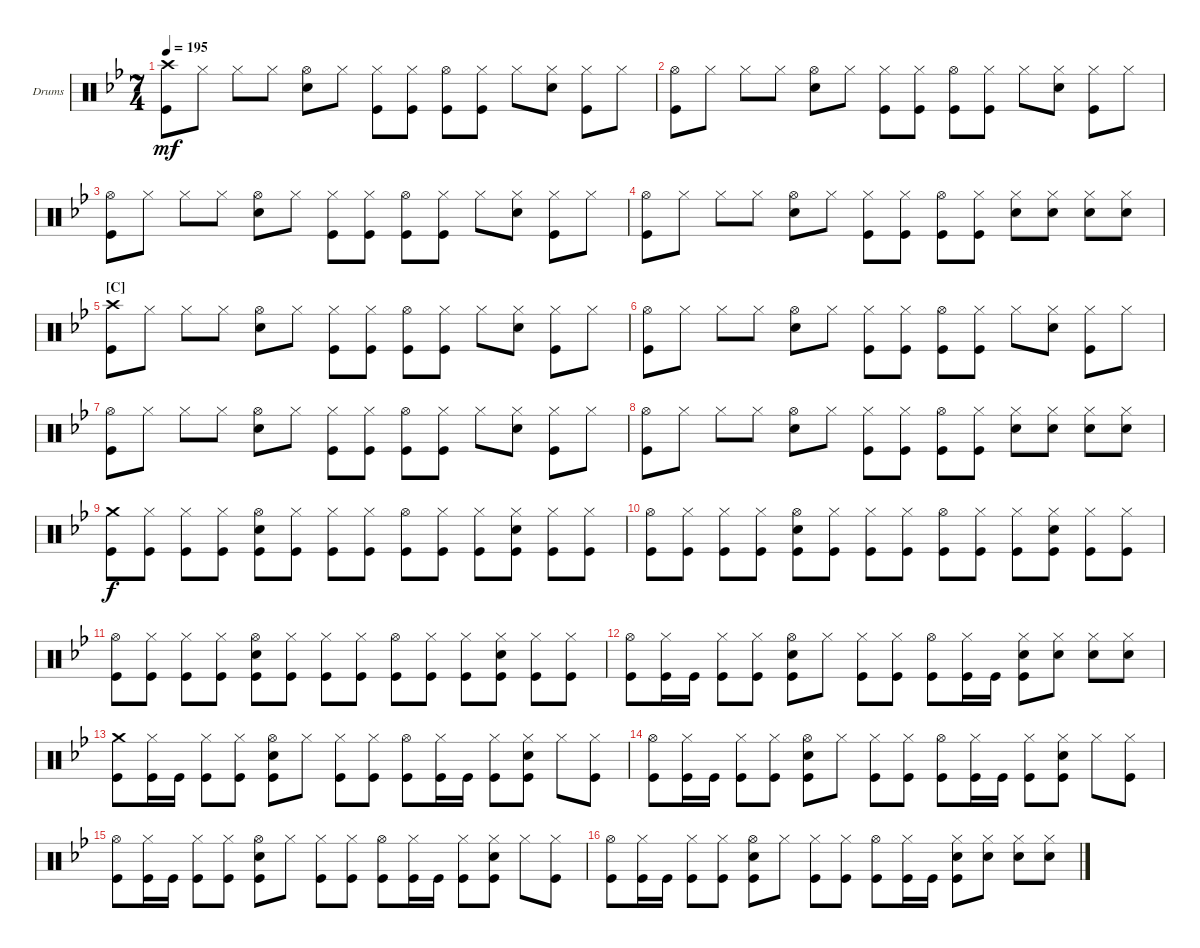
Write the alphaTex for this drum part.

\defaultSystemsLayout 4
\bracketExtendMode groupsimilarinstruments
\firstSystemTrackNameOrientation horizontal
\otherSystemsTrackNameOrientation horizontal
\track ("Drumkit" "Drums") {instrument percussion}
\staff {score}
\articulation defaults
\ts (7 4)
\tempo 195
\clef neutral
\ks gminor
("Crash high (hit)" "Kick (hit)").8{dy mf} "Hi-Hat (closed)".8 "Hi-Hat (closed)".8 "Hi-Hat (closed)".8 ("Hi-Hat (open)" "Snare (hit) 2").8 "Hi-Hat (closed)".8 ("Hi-Hat (closed)" "Kick (hit)").8 ("Hi-Hat (closed)" "Kick (hit)").8 ("Hi-Hat (open)" "Kick (hit)").8 ("Hi-Hat (closed)" "Kick (hit)").8 "Hi-Hat (closed)".8 ("Hi-Hat (closed)" "Snare (hit) 2").8 ("Hi-Hat (closed)" "Kick (hit)").8 "Hi-Hat (closed)".8 |
("Kick (hit)" "Hi-Hat (open)").8 "Hi-Hat (closed)".8 "Hi-Hat (closed)".8 "Hi-Hat (closed)".8 ("Hi-Hat (open)" "Snare (hit) 2").8 "Hi-Hat (closed)".8 ("Hi-Hat (closed)" "Kick (hit)").8 ("Hi-Hat (closed)" "Kick (hit)").8 ("Hi-Hat (open)" "Kick (hit)").8 ("Hi-Hat (closed)" "Kick (hit)").8 "Hi-Hat (closed)".8 ("Hi-Hat (closed)" "Snare (hit) 2").8 ("Hi-Hat (closed)" "Kick (hit)").8 "Hi-Hat (closed)".8 |
("Kick (hit)" "Hi-Hat (open)").8 "Hi-Hat (closed)".8 "Hi-Hat (closed)".8 "Hi-Hat (closed)".8 ("Hi-Hat (open)" "Snare (hit) 2").8 "Hi-Hat (closed)".8 ("Hi-Hat (closed)" "Kick (hit)").8 ("Hi-Hat (closed)" "Kick (hit)").8 ("Hi-Hat (open)" "Kick (hit)").8 ("Hi-Hat (closed)" "Kick (hit)").8 "Hi-Hat (closed)".8 ("Hi-Hat (closed)" "Snare (hit) 2").8 ("Hi-Hat (closed)" "Kick (hit)").8 "Hi-Hat (closed)".8 |
("Kick (hit)" "Hi-Hat (open)").8 "Hi-Hat (closed)".8 "Hi-Hat (closed)".8 "Hi-Hat (closed)".8 ("Hi-Hat (open)" "Snare (hit) 2").8 "Hi-Hat (closed)".8 ("Hi-Hat (closed)" "Kick (hit)").8 ("Hi-Hat (closed)" "Kick (hit)").8 ("Hi-Hat (open)" "Kick (hit)").8 ("Hi-Hat (closed)" "Kick (hit)").8 ("Hi-Hat (closed)" "Snare (hit) 2").8 ("Hi-Hat (closed)" "Snare (hit) 2").8 ("Hi-Hat (closed)" "Snare (hit) 2").8 ("Hi-Hat (closed)" "Snare (hit) 2").8 |
\section ("C" "")
("Crash high (hit)" "Kick (hit)").8 "Hi-Hat (closed)".8 "Hi-Hat (closed)".8 "Hi-Hat (closed)".8 ("Hi-Hat (open)" "Snare (hit) 2").8 "Hi-Hat (closed)".8 ("Hi-Hat (closed)" "Kick (hit)").8 ("Hi-Hat (closed)" "Kick (hit)").8 ("Hi-Hat (open)" "Kick (hit)").8 ("Hi-Hat (closed)" "Kick (hit)").8 "Hi-Hat (closed)".8 ("Hi-Hat (closed)" "Snare (hit) 2").8 ("Hi-Hat (closed)" "Kick (hit)").8 "Hi-Hat (closed)".8 |
("Kick (hit)" "Hi-Hat (open)").8 "Hi-Hat (closed)".8 "Hi-Hat (closed)".8 "Hi-Hat (closed)".8 ("Hi-Hat (open)" "Snare (hit) 2").8 "Hi-Hat (closed)".8 ("Hi-Hat (closed)" "Kick (hit)").8 ("Hi-Hat (closed)" "Kick (hit)").8 ("Hi-Hat (open)" "Kick (hit)").8 ("Hi-Hat (closed)" "Kick (hit)").8 "Hi-Hat (closed)".8 ("Hi-Hat (closed)" "Snare (hit) 2").8 ("Hi-Hat (closed)" "Kick (hit)").8 "Hi-Hat (closed)".8 |
("Kick (hit)" "Hi-Hat (open)").8 "Hi-Hat (closed)".8 "Hi-Hat (closed)".8 "Hi-Hat (closed)".8 ("Hi-Hat (open)" "Snare (hit) 2").8 "Hi-Hat (closed)".8 ("Hi-Hat (closed)" "Kick (hit)").8 ("Hi-Hat (closed)" "Kick (hit)").8 ("Hi-Hat (open)" "Kick (hit)").8 ("Hi-Hat (closed)" "Kick (hit)").8 "Hi-Hat (closed)".8 ("Hi-Hat (closed)" "Snare (hit) 2").8 ("Hi-Hat (closed)" "Kick (hit)").8 "Hi-Hat (closed)".8 |
("Kick (hit)" "Hi-Hat (open)").8 "Hi-Hat (closed)".8 "Hi-Hat (closed)".8 "Hi-Hat (closed)".8 ("Hi-Hat (open)" "Snare (hit) 2").8 "Hi-Hat (closed)".8 ("Hi-Hat (closed)" "Kick (hit)").8 ("Hi-Hat (closed)" "Kick (hit)").8 ("Hi-Hat (open)" "Kick (hit)").8 ("Hi-Hat (closed)" "Kick (hit)").8 ("Hi-Hat (closed)" "Snare (hit) 2").8 ("Hi-Hat (closed)" "Snare (hit) 2").8 ("Hi-Hat (closed)" "Snare (hit) 2").8 ("Hi-Hat (closed)" "Snare (hit) 2").8 |
("Kick (hit)" "Crash medium (hit)").8{dy f} ("Kick (hit)" "Hi-Hat (closed)").8 ("Kick (hit)" "Hi-Hat (closed)").8 ("Kick (hit)" "Hi-Hat (closed)").8 ("Kick (hit)" "Snare (hit) 2" "Hi-Hat (open)").8 ("Hi-Hat (closed)" "Kick (hit)").8 ("Kick (hit)" "Hi-Hat (closed)").8 ("Kick (hit)" "Hi-Hat (closed)").8 ("Kick (hit)" "Hi-Hat (open)").8 ("Kick (hit)" "Hi-Hat (closed)").8 ("Kick (hit)" "Hi-Hat (closed)").8 ("Kick (hit)" "Snare (hit) 2" "Hi-Hat (closed)").8 ("Hi-Hat (closed)" "Kick (hit)").8 ("Kick (hit)" "Hi-Hat (closed)").8 |
("Kick (hit)" "Hi-Hat (open)").8 ("Kick (hit)" "Hi-Hat (closed)").8 ("Kick (hit)" "Hi-Hat (closed)").8 ("Kick (hit)" "Hi-Hat (closed)").8 ("Kick (hit)" "Snare (hit) 2" "Hi-Hat (open)").8 ("Hi-Hat (closed)" "Kick (hit)").8 ("Kick (hit)" "Hi-Hat (closed)").8 ("Kick (hit)" "Hi-Hat (closed)").8 ("Kick (hit)" "Hi-Hat (open)").8 ("Kick (hit)" "Hi-Hat (closed)").8 ("Kick (hit)" "Hi-Hat (closed)").8 ("Kick (hit)" "Snare (hit) 2" "Hi-Hat (closed)").8 ("Hi-Hat (closed)" "Kick (hit)").8 ("Kick (hit)" "Hi-Hat (closed)").8 |
("Kick (hit)" "Hi-Hat (open)").8 ("Kick (hit)" "Hi-Hat (closed)").8 ("Kick (hit)" "Hi-Hat (closed)").8 ("Kick (hit)" "Hi-Hat (closed)").8 ("Kick (hit)" "Snare (hit) 2" "Hi-Hat (open)").8 ("Hi-Hat (closed)" "Kick (hit)").8 ("Kick (hit)" "Hi-Hat (closed)").8 ("Kick (hit)" "Hi-Hat (closed)").8 ("Kick (hit)" "Hi-Hat (open)").8 ("Kick (hit)" "Hi-Hat (closed)").8 ("Kick (hit)" "Hi-Hat (closed)").8 ("Kick (hit)" "Snare (hit) 2" "Hi-Hat (closed)").8 ("Hi-Hat (closed)" "Kick (hit)").8 ("Kick (hit)" "Hi-Hat (closed)").8 |
("Kick (hit)" "Hi-Hat (open)").8 ("Kick (hit)" "Hi-Hat (closed)").16 "Kick (hit)".16 ("Kick (hit)" "Hi-Hat (closed)").8 ("Kick (hit)" "Hi-Hat (closed)").8 ("Kick (hit)" "Snare (hit) 2" "Hi-Hat (open)").8 "Hi-Hat (closed)".8 ("Kick (hit)" "Hi-Hat (closed)").8 ("Kick (hit)" "Hi-Hat (closed)").8 ("Kick (hit)" "Hi-Hat (open)").8 ("Kick (hit)" "Hi-Hat (closed)").16 "Kick (hit)".16 ("Hi-Hat (closed)" "Snare (hit) 2" "Kick (hit)").8 ("Hi-Hat (closed)" "Snare (hit) 2").8 ("Hi-Hat (closed)" "Snare (hit) 2").8 ("Hi-Hat (closed)" "Snare (hit) 2").8 |
("Kick (hit)" "Crash medium (hit)").8 ("Kick (hit)" "Hi-Hat (closed)").16 "Kick (hit)".16 ("Kick (hit)" "Hi-Hat (closed)").8 ("Kick (hit)" "Hi-Hat (closed)").8 ("Kick (hit)" "Snare (hit) 2" "Hi-Hat (open)").8 "Hi-Hat (closed)".8 ("Kick (hit)" "Hi-Hat (closed)").8 ("Kick (hit)" "Hi-Hat (closed)").8 ("Kick (hit)" "Hi-Hat (open)").8 ("Kick (hit)" "Hi-Hat (closed)").16 "Kick (hit)".16 ("Kick (hit)" "Hi-Hat (closed)").8 ("Kick (hit)" "Snare (hit) 2" "Hi-Hat (closed)").8 "Hi-Hat (closed)".8 ("Kick (hit)" "Hi-Hat (closed)").8 |
("Kick (hit)" "Hi-Hat (open)").8 ("Kick (hit)" "Hi-Hat (closed)").16 "Kick (hit)".16 ("Kick (hit)" "Hi-Hat (closed)").8 ("Kick (hit)" "Hi-Hat (closed)").8 ("Kick (hit)" "Snare (hit) 2" "Hi-Hat (open)").8 "Hi-Hat (closed)".8 ("Kick (hit)" "Hi-Hat (closed)").8 ("Kick (hit)" "Hi-Hat (closed)").8 ("Kick (hit)" "Hi-Hat (open)").8 ("Kick (hit)" "Hi-Hat (closed)").16 "Kick (hit)".16 ("Kick (hit)" "Hi-Hat (closed)").8 ("Kick (hit)" "Snare (hit) 2" "Hi-Hat (closed)").8 "Hi-Hat (closed)".8 ("Kick (hit)" "Hi-Hat (closed)").8 |
("Kick (hit)" "Hi-Hat (open)").8 ("Kick (hit)" "Hi-Hat (closed)").16 "Kick (hit)".16 ("Kick (hit)" "Hi-Hat (closed)").8 ("Kick (hit)" "Hi-Hat (closed)").8 ("Kick (hit)" "Snare (hit) 2" "Hi-Hat (open)").8 "Hi-Hat (closed)".8 ("Kick (hit)" "Hi-Hat (closed)").8 ("Kick (hit)" "Hi-Hat (closed)").8 ("Kick (hit)" "Hi-Hat (open)").8 ("Kick (hit)" "Hi-Hat (closed)").16 "Kick (hit)".16 ("Kick (hit)" "Hi-Hat (closed)").8 ("Kick (hit)" "Snare (hit) 2" "Hi-Hat (closed)").8 "Hi-Hat (closed)".8 ("Kick (hit)" "Hi-Hat (closed)").8 |
("Kick (hit)" "Hi-Hat (open)").8 ("Kick (hit)" "Hi-Hat (closed)").16 "Kick (hit)".16 ("Kick (hit)" "Hi-Hat (closed)").8 ("Kick (hit)" "Hi-Hat (closed)").8 ("Kick (hit)" "Snare (hit) 2" "Hi-Hat (open)").8 "Hi-Hat (closed)".8 ("Kick (hit)" "Hi-Hat (closed)").8 ("Kick (hit)" "Hi-Hat (closed)").8 ("Kick (hit)" "Hi-Hat (open)").8 ("Kick (hit)" "Hi-Hat (closed)").16 "Kick (hit)".16 ("Hi-Hat (closed)" "Snare (hit) 2" "Kick (hit)").8 ("Hi-Hat (closed)" "Snare (hit) 2").8 ("Hi-Hat (closed)" "Snare (hit) 2").8 ("Hi-Hat (closed)" "Snare (hit) 2").8
